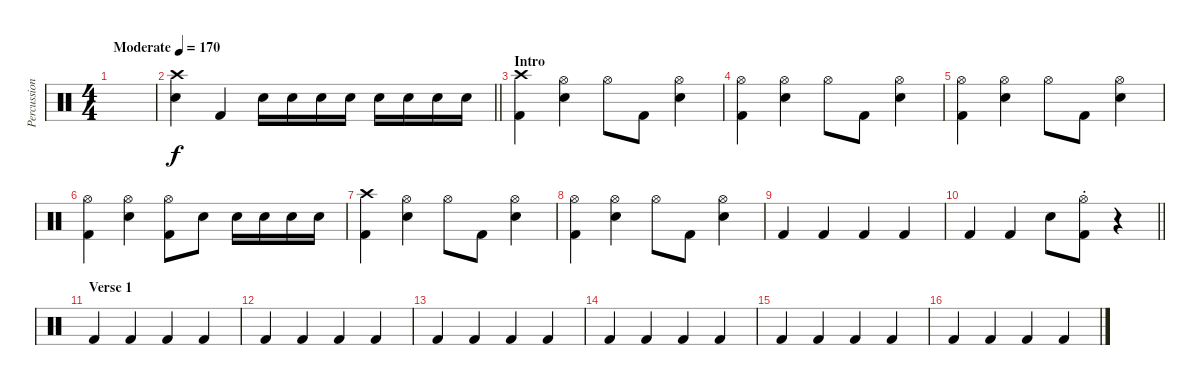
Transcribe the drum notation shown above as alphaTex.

\track ("Percussion" "Percussion") {instrument percussion}
\staff {score}
\articulation defaults
\ts (4 4)
\tempo (170 "Moderate")
\clef neutral
\ks c
|
\barLineRight lightlight
("Crash high (hit)" "Snare (hit) 2").4 "Kick (hit) 2".4 "Snare (hit) 2".16 "Snare (hit) 2".16 "Snare (hit) 2".16 "Snare (hit) 2".16 "Snare (hit) 2".16 "Snare (hit) 2".16 "Snare (hit) 2".16 "Snare (hit) 2".16 |
\section ("" "Intro")
("Crash high (hit)" "Kick (hit) 2").4 ("Hi-Hat (open)" "Snare (hit) 2").4 "Hi-Hat (open)".8 "Kick (hit) 2".8 ("Hi-Hat (open)" "Snare (hit) 2").4 |
("Hi-Hat (open)" "Kick (hit) 2").4 ("Hi-Hat (open)" "Snare (hit) 2").4 "Hi-Hat (open)".8 "Kick (hit) 2".8 ("Hi-Hat (open)" "Snare (hit) 2").4 |
("Hi-Hat (open)" "Kick (hit) 2").4 ("Hi-Hat (open)" "Snare (hit) 2").4 "Hi-Hat (open)".8 "Kick (hit) 2".8 ("Hi-Hat (open)" "Snare (hit) 2").4 |
("Hi-Hat (open)" "Kick (hit) 2").4 ("Hi-Hat (open)" "Snare (hit) 2").4 ("Hi-Hat (open)" "Kick (hit) 2").8 "Snare (hit) 2".8 "Snare (hit) 2".16 "Snare (hit) 2".16 "Snare (hit) 2".16 "Snare (hit) 2".16 |
("Crash high (hit)" "Kick (hit) 2").4 ("Hi-Hat (open)" "Snare (hit) 2").4 "Hi-Hat (open)".8 "Kick (hit) 2".8 ("Hi-Hat (open)" "Snare (hit) 2").4 |
("Hi-Hat (open)" "Kick (hit) 2").4 ("Hi-Hat (open)" "Snare (hit) 2").4 "Hi-Hat (open)".8 "Kick (hit) 2".8 ("Hi-Hat (open)" "Snare (hit) 2").4 |
"Kick (hit) 2".4 "Kick (hit) 2".4 "Kick (hit) 2".4 "Kick (hit) 2".4 |
\barLineRight lightlight "Kick (hit) 2".4 "Kick (hit) 2".4 "Snare (hit) 2".8
("Hi-Hat (open)"{st} "Kick (hit) 2").8 r.4 |
\section ("" "Verse 1")
"Kick (hit) 2".4 "Kick (hit) 2".4 "Kick (hit) 2".4 "Kick (hit) 2".4 |
"Kick (hit) 2".4 "Kick (hit) 2".4 "Kick (hit) 2".4 "Kick (hit) 2".4 |
"Kick (hit) 2".4 "Kick (hit) 2".4 "Kick (hit) 2".4 "Kick (hit) 2".4 |
"Kick (hit) 2".4 "Kick (hit) 2".4 "Kick (hit) 2".4 "Kick (hit) 2".4 |
"Kick (hit) 2".4 "Kick (hit) 2".4 "Kick (hit) 2".4 "Kick (hit) 2".4 |
"Kick (hit) 2".4 "Kick (hit) 2".4 "Kick (hit) 2".4 "Kick (hit) 2".4
